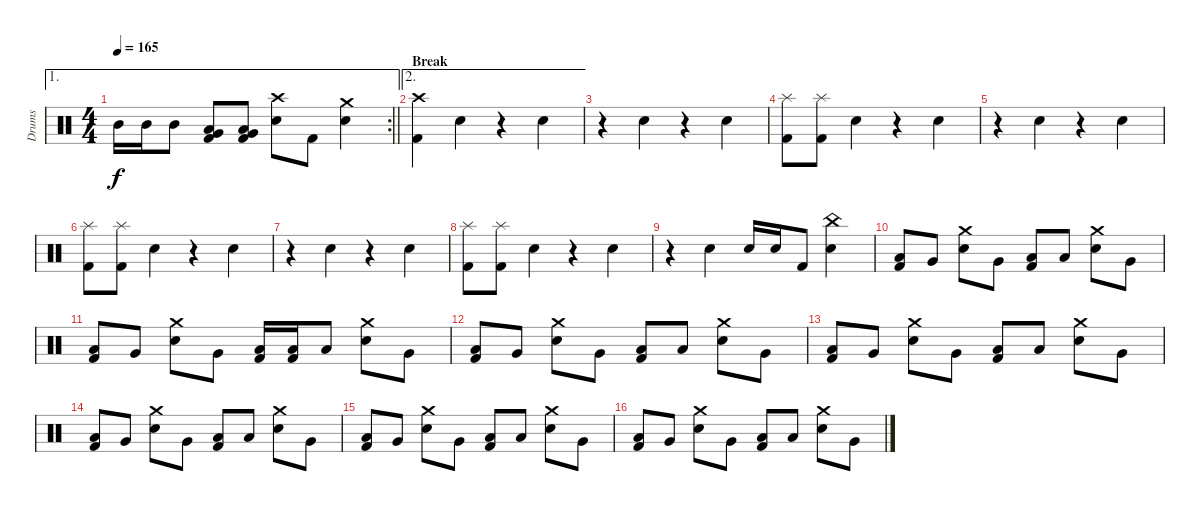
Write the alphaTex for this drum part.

\track ("Drums" "Drums") {instrument percussion}
\staff {score}
\articulation defaults
\ae 1
\rc 2
\ts (4 4)
\tempo 165
\clef neutral
\barLineRight lightlight
\ks c "Mid Tom (hit)".16{dy f} "Mid Tom (hit)".16 "Mid Tom (hit)".8
("Very Low Tom (hit)" "Low Tom (hit)" "Kick (hit) 2").8 ("Very Low Tom (hit)" "Low Tom (hit)" "Kick (hit) 2").8 ("Crash high (hit)" "Electric Snare (hit)").8 "Kick (hit) 2".8 ("Crash medium (hit)" "Electric Snare (hit)").4 |
\ae 2
\section ("" "Break")
("Crash high (hit)" "Kick (hit) 2").4 "Electric Snare (hit)".4 r.4 "Electric Snare (hit)".4 |
r.4 "Electric Snare (hit)".4 r.4 "Electric Snare (hit)".4 |
("Splash (hit)" "Kick (hit) 2").8 ("Splash (hit)" "Kick (hit) 2").8 "Electric Snare (hit)".4 r.4 "Electric Snare (hit)".4 |
r.4 "Electric Snare (hit)".4 r.4 "Electric Snare (hit)".4 |
("Splash (hit)" "Kick (hit) 2").8 ("Splash (hit)" "Kick (hit) 2").8 "Electric Snare (hit)".4 r.4 "Electric Snare (hit)".4 |
r.4 "Electric Snare (hit)".4 r.4 "Electric Snare (hit)".4 |
("Splash (hit)" "Kick (hit) 2").8 ("Splash (hit)" "Kick (hit) 2").8 "Electric Snare (hit)".4 r.4 "Electric Snare (hit)".4 |
r.4 "Electric Snare (hit)".4 "Electric Snare (hit)".16 "Electric Snare (hit)".16 "Kick (hit) 2".8 ("China (hit)" "Electric Snare (hit)").4 |
("Low Tom (hit)" "Kick (hit) 2").8 "Very Low Tom (hit)".8 ("Crash medium (hit)" "Electric Snare (hit)").8 "Very Low Tom (hit)".8 ("Low Tom (hit)" "Kick (hit) 2").8 "Low Tom (hit)".8 ("Crash medium (hit)" "Electric Snare (hit)").8 "Very Low Tom (hit)".8 |
("Low Tom (hit)" "Kick (hit) 2").8 "Very Low Tom (hit)".8 ("Crash medium (hit)" "Electric Snare (hit)").8 "Very Low Tom (hit)".8 ("Low Tom (hit)" "Kick (hit) 2").16 ("Low Tom (hit)" "Kick (hit) 2").16 "Low Tom (hit)".8 ("Crash medium (hit)" "Electric Snare (hit)").8 "Very Low Tom (hit)".8 |
("Low Tom (hit)" "Kick (hit) 2").8 "Very Low Tom (hit)".8 ("Crash medium (hit)" "Electric Snare (hit)").8 "Very Low Tom (hit)".8 ("Low Tom (hit)" "Kick (hit) 2").8 "Low Tom (hit)".8 ("Crash medium (hit)" "Electric Snare (hit)").8 "Very Low Tom (hit)".8 |
("Low Tom (hit)" "Kick (hit) 2").8 "Very Low Tom (hit)".8 ("Crash medium (hit)" "Electric Snare (hit)").8 "Very Low Tom (hit)".8 ("Low Tom (hit)" "Kick (hit) 2").8 "Low Tom (hit)".8 ("Crash medium (hit)" "Electric Snare (hit)").8 "Very Low Tom (hit)".8 |
("Low Tom (hit)" "Kick (hit) 2").8 "Very Low Tom (hit)".8 ("Crash medium (hit)" "Electric Snare (hit)").8 "Very Low Tom (hit)".8 ("Low Tom (hit)" "Kick (hit) 2").8 "Low Tom (hit)".8 ("Crash medium (hit)" "Electric Snare (hit)").8 "Very Low Tom (hit)".8 |
("Low Tom (hit)" "Kick (hit) 2").8 "Very Low Tom (hit)".8 ("Crash medium (hit)" "Electric Snare (hit)").8 "Very Low Tom (hit)".8 ("Low Tom (hit)" "Kick (hit) 2").8 "Low Tom (hit)".8 ("Crash medium (hit)" "Electric Snare (hit)").8 "Very Low Tom (hit)".8 |
("Low Tom (hit)" "Kick (hit) 2").8 "Very Low Tom (hit)".8 ("Crash medium (hit)" "Electric Snare (hit)").8 "Very Low Tom (hit)".8 ("Low Tom (hit)" "Kick (hit) 2").8 "Low Tom (hit)".8 ("Crash medium (hit)" "Electric Snare (hit)").8 "Very Low Tom (hit)".8
